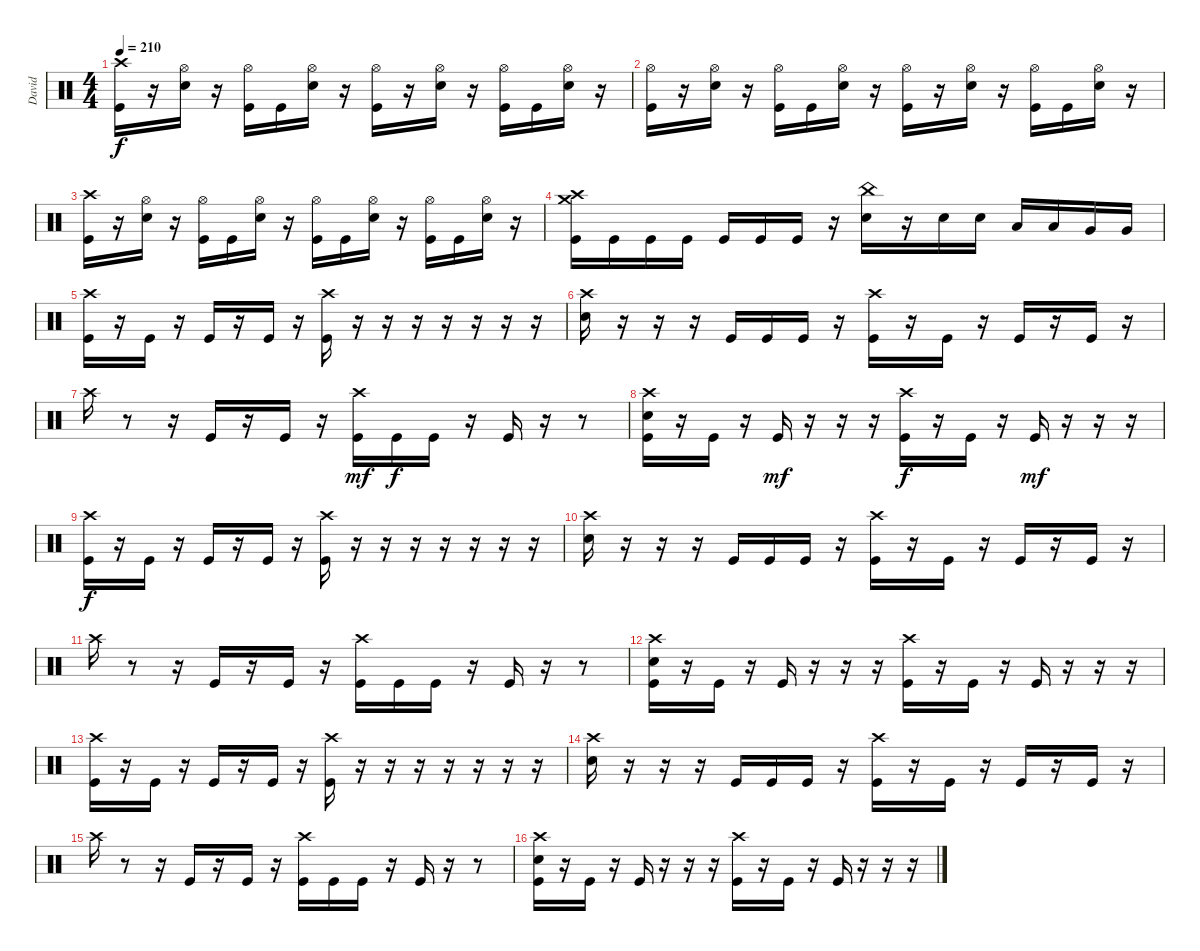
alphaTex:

\track ("David" "David") {instrument percussion}
\staff {score}
\articulation defaults
\ts (4 4)
\tempo 210
\clef neutral
\ks c
("Crash high (hit)" "Kick (hit)").16{dy f} r.16 ("Hi-Hat (open)" "Electric Snare (hit)").16 r.16 ("Hi-Hat (open)" "Kick (hit)").16 "Kick (hit)".16 ("Hi-Hat (open)" "Electric Snare (hit)").16 r.16 ("Hi-Hat (open)" "Kick (hit)").16 r.16 ("Hi-Hat (open)" "Electric Snare (hit)").16 r.16 ("Hi-Hat (open)" "Kick (hit)").16 "Kick (hit)".16 ("Hi-Hat (open)" "Electric Snare (hit)").16 r.16 |
("Hi-Hat (open)" "Kick (hit)").16 r.16 ("Hi-Hat (open)" "Electric Snare (hit)").16 r.16 ("Hi-Hat (open)" "Kick (hit)").16 "Kick (hit)".16 ("Hi-Hat (open)" "Electric Snare (hit)").16 r.16 ("Hi-Hat (open)" "Kick (hit)").16 r.16 ("Hi-Hat (open)" "Electric Snare (hit)").16 r.16 ("Hi-Hat (open)" "Kick (hit)").16 "Kick (hit)".16 ("Hi-Hat (open)" "Electric Snare (hit)").16 r.16 |
("Crash high (hit)" "Kick (hit)").16 r.16 ("Hi-Hat (open)" "Electric Snare (hit)").16 r.16 ("Hi-Hat (open)" "Kick (hit)").16 "Kick (hit)".16 ("Hi-Hat (open)" "Electric Snare (hit)").16 r.16 ("Hi-Hat (open)" "Kick (hit)").16 "Kick (hit)".16 ("Hi-Hat (open)" "Electric Snare (hit)").16 r.16 ("Hi-Hat (open)" "Kick (hit)").16 "Kick (hit)".16 ("Hi-Hat (open)" "Electric Snare (hit)").16 r.16 |
("Crash high (hit)" "Crash medium (hit)" "Kick (hit)").16 "Kick (hit)".16 "Kick (hit)".16 "Kick (hit)".16 "Kick (hit)".16 "Kick (hit)".16 "Kick (hit)".16 r.16 ("China (hit)" "Electric Snare (hit)").16 r.16 "Electric Snare (hit)".16 "Electric Snare (hit)".16 "Low Tom (hit)".16 "Low Tom (hit)".16 "Very Low Tom (hit)".16 "Very Low Tom (hit)".16 |
("Crash high (hit)" "Kick (hit)").16 r.16 "Kick (hit)".16 r.16 "Kick (hit)".16 r.16 "Kick (hit)".16 r.16 ("Crash high (hit)" "Kick (hit)").16 r.16 r.16 r.16 r.16 r.16 r.16 r.16 |
("Crash high (hit)" "Electric Snare (hit)").16 r.16 r.16 r.16 "Kick (hit)".16 "Kick (hit)".16 "Kick (hit)".16 r.16 ("Crash high (hit)" "Kick (hit)").16 r.16 "Kick (hit)".16 r.16 "Kick (hit)".16 r.16 "Kick (hit)".16 r.16 |
"Crash high (hit)".16 r.8 r.16 "Kick (hit)".16 r.16 "Kick (hit)".16 r.16 ("Crash high (hit)" "Kick (hit)").16{dy mf} "Kick (hit)".16{dy f} "Kick (hit)".16 r.16 "Kick (hit)".16 r.16 r.8 |
("Crash high (hit)" "Electric Snare (hit)" "Kick (hit)").16 r.16 "Kick (hit)".16 r.16 "Kick (hit)".16{dy mf} r.16 r.16 r.16 ("Crash high (hit)" "Kick (hit)").16{dy f} r.16 "Kick (hit)".16 r.16 "Kick (hit)".16{dy mf} r.16 r.16 r.16 |
("Crash high (hit)" "Kick (hit)").16{dy f} r.16 "Kick (hit)".16 r.16 "Kick (hit)".16 r.16 "Kick (hit)".16 r.16 ("Crash high (hit)" "Kick (hit)").16 r.16 r.16 r.16 r.16 r.16 r.16 r.16 |
("Crash high (hit)" "Electric Snare (hit)").16 r.16 r.16 r.16 "Kick (hit)".16 "Kick (hit)".16 "Kick (hit)".16 r.16 ("Crash high (hit)" "Kick (hit)").16 r.16 "Kick (hit)".16 r.16 "Kick (hit)".16 r.16 "Kick (hit)".16 r.16 |
"Crash high (hit)".16 r.8 r.16 "Kick (hit)".16 r.16 "Kick (hit)".16 r.16 ("Crash high (hit)" "Kick (hit)").16 "Kick (hit)".16 "Kick (hit)".16 r.16 "Kick (hit)".16 r.16 r.8 |
("Crash high (hit)" "Electric Snare (hit)" "Kick (hit)").16 r.16 "Kick (hit)".16 r.16 "Kick (hit)".16 r.16 r.16 r.16 ("Crash high (hit)" "Kick (hit)").16 r.16 "Kick (hit)".16 r.16 "Kick (hit)".16 r.16 r.16 r.16 |
("Crash high (hit)" "Kick (hit)").16 r.16 "Kick (hit)".16 r.16 "Kick (hit)".16 r.16 "Kick (hit)".16 r.16 ("Crash high (hit)" "Kick (hit)").16 r.16 r.16 r.16 r.16 r.16 r.16 r.16 |
("Crash high (hit)" "Electric Snare (hit)").16 r.16 r.16 r.16 "Kick (hit)".16 "Kick (hit)".16 "Kick (hit)".16 r.16 ("Crash high (hit)" "Kick (hit)").16 r.16 "Kick (hit)".16 r.16 "Kick (hit)".16 r.16 "Kick (hit)".16 r.16 |
"Crash high (hit)".16 r.8 r.16 "Kick (hit)".16 r.16 "Kick (hit)".16 r.16 ("Crash high (hit)" "Kick (hit)").16 "Kick (hit)".16 "Kick (hit)".16 r.16 "Kick (hit)".16 r.16 r.8 |
("Crash high (hit)" "Electric Snare (hit)" "Kick (hit)").16 r.16 "Kick (hit)".16 r.16 "Kick (hit)".16 r.16 r.16 r.16 ("Crash high (hit)" "Kick (hit)").16 r.16 "Kick (hit)".16 r.16 "Kick (hit)".16 r.16 r.16 r.16
